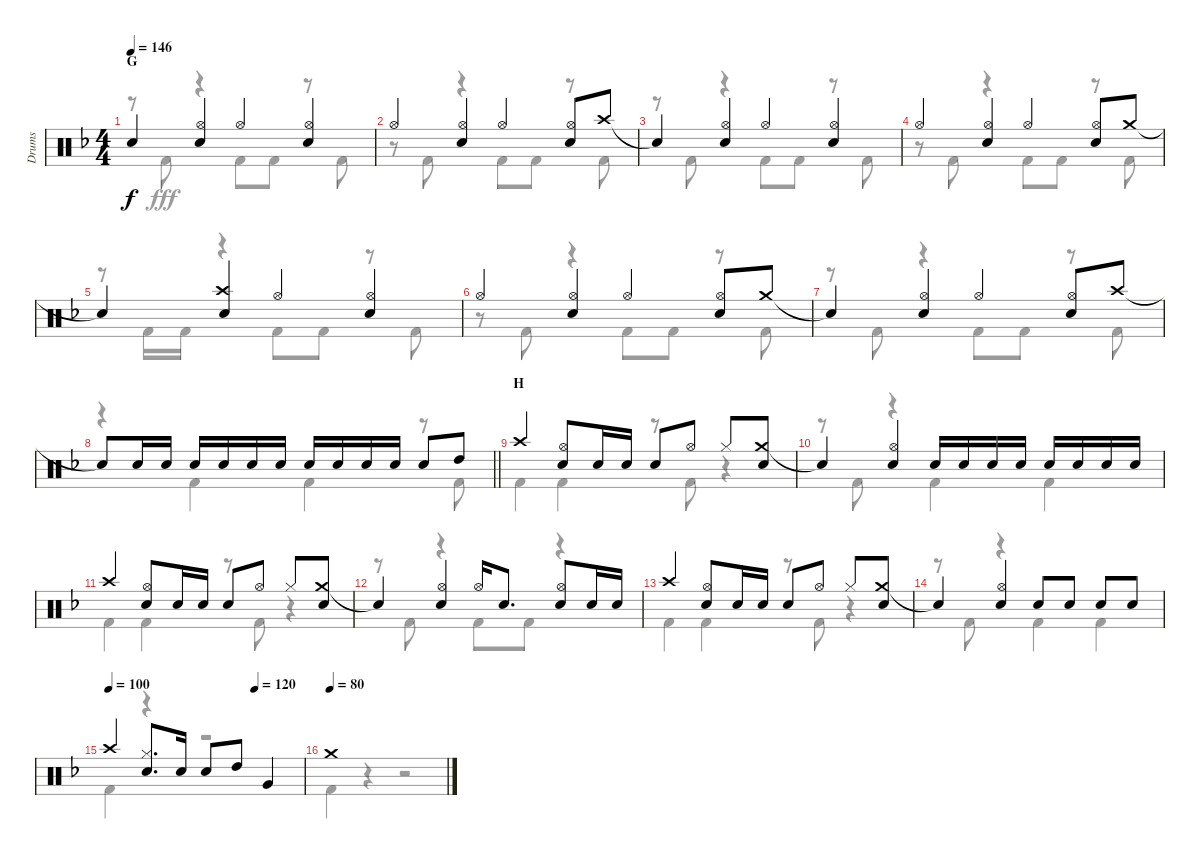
\track ("Drums" "Drums") {instrument percussion}
\staff {score}
\articulation defaults
\voice
\ts (4 4)
\section ("" "G")
\tempo 146
\clef neutral
\ks f "Snare (hit)"{t}.4{dy f}
("Hi-Hat (open)" "Snare (hit) 2").4 "Hi-Hat (open)".4 ("Hi-Hat (open)" "Snare (hit) 2").4 |
"Hi-Hat (open)".4 ("Hi-Hat (open)" "Snare (hit) 2").4 "Hi-Hat (open)".4 ("Hi-Hat (open)" "Snare (hit) 2").8 "Crash high (hit)".8 |
"Snare (hit)"{t}.4 ("Hi-Hat (open)" "Snare (hit) 2").4 "Hi-Hat (open)".4 ("Hi-Hat (open)" "Snare (hit) 2").4 |
"Hi-Hat (open)".4 ("Hi-Hat (open)" "Snare (hit) 2").4 "Hi-Hat (open)".4 ("Hi-Hat (open)" "Snare (hit) 2").8 "Crash medium (hit)".8 |
"Snare (hit)"{t}.4 ("Crash high (hit)" "Snare (hit) 2").4 "Hi-Hat (open)".4 ("Hi-Hat (open)" "Snare (hit) 2").4 |
"Hi-Hat (open)".4 ("Hi-Hat (open)" "Snare (hit) 2").4 "Hi-Hat (open)".4 ("Hi-Hat (open)" "Snare (hit) 2").8 "Crash medium (hit)".8 |
"Snare (hit)"{t}.4 ("Hi-Hat (open)" "Snare (hit) 2").4 "Hi-Hat (open)".4 ("Hi-Hat (open)" "Snare (hit) 2").8 "Crash high (hit)".8 |
\barLineRight lightlight "Snare (hit)"{t}.8 "Snare (hit) 2".16 "Snare (hit) 2".16 "Snare (hit) 2".16 "Snare (hit) 2".16 "Snare (hit) 2".16 "Snare (hit) 2".16 "Snare (hit) 2".16 "Snare (hit) 2".16 "Snare (hit) 2".16 "Snare (hit) 2".16 "Snare (hit) 2".8 "High Tom (hit)".8
|
\section ("" "H")
"Crash high (hit)".4 ("Hi-Hat (open)" "Snare (hit) 2").8 "Snare (hit) 2".16 "Snare (hit) 2".16 "Snare (hit) 2".8 "Hi-Hat (open)".8 "Hi-Hat (closed)".8 ("Crash medium (hit)" "Snare (hit) 2").8 |
"Snare (hit)"{t}.4 ("Hi-Hat (open)" "Snare (hit) 2").4 "Snare (hit) 2".16 "Snare (hit) 2".16 "Snare (hit) 2".16 "Snare (hit) 2".16 "Snare (hit) 2".16 "Snare (hit) 2".16 "Snare (hit) 2".16 "Snare (hit) 2".16 |
"Crash high (hit)".4 ("Hi-Hat (open)" "Snare (hit) 2").8 "Snare (hit) 2".16 "Snare (hit) 2".16 "Snare (hit) 2".8 "Hi-Hat (open)".8 "Hi-Hat (closed)".8 ("Crash medium (hit)" "Snare (hit) 2").8 |
"Snare (hit)"{t}.4 ("Hi-Hat (open)" "Snare (hit) 2").4 "Hi-Hat (open)".16 "Snare (hit) 2".8{d} ("Hi-Hat (open)" "Snare (hit) 2").8 "Snare (hit) 2".16 "Snare (hit) 2".16 |
"Crash high (hit)".4 ("Hi-Hat (open)" "Snare (hit) 2").8 "Snare (hit) 2".16 "Snare (hit) 2".16 "Snare (hit) 2".8 "Hi-Hat (open)".8 "Hi-Hat (closed)".8 ("Crash medium (hit)" "Snare (hit) 2").8 |
"Snare (hit)"{t}.4 ("Hi-Hat (open)" "Snare (hit) 2").4 "Snare (hit) 2".8 "Snare (hit) 2".8 "Snare (hit) 2".8 "Snare (hit) 2".8 |
\tempo 100
\tempo (120 0.75)
"Crash high (hit)".4 ("Hi-Hat (closed)" "Snare (hit) 2").8{d} "Snare (hit) 2".16 "Snare (hit) 2".8 "High Tom (hit)".8 "Very Low Tom (hit)".4 |
\tempo (80)
"Crash medium (hit)".1
\voice
\clef neutral
\ottava regular
\simile none
\ks f
r.8{dy fff} "Kick (hit) 2".8 r.4 "Kick (hit) 2".8 "Kick (hit) 2".8 r.8 "Kick (hit) 2".8 |
r.8 "Kick (hit) 2".8 r.4 "Kick (hit) 2".8 "Kick (hit) 2".8 r.8 "Kick (hit) 2".8 |
r.8 "Kick (hit) 2".8 r.4 "Kick (hit) 2".8 "Kick (hit) 2".8 r.8 "Kick (hit) 2".8 |
r.8 "Kick (hit) 2".8 r.4 "Kick (hit) 2".8 "Kick (hit) 2".8 r.8 "Kick (hit) 2".8 |
r.8 "Kick (hit) 2".16 "Kick (hit) 2".16 r.4 "Kick (hit) 2".8 "Kick (hit) 2".8 r.8 "Kick (hit) 2".8 |
r.8 "Kick (hit) 2".8 r.4 "Kick (hit) 2".8 "Kick (hit) 2".8 r.8 "Kick (hit) 2".8 |
r.8 "Kick (hit) 2".8 r.4 "Kick (hit) 2".8 "Kick (hit) 2".8 r.8 "Kick (hit) 2".8 |
\barLineRight lightlight
r.4 "Kick (hit) 2".4 "Kick (hit) 2".4 r.8 "Kick (hit) 2".8 |
"Kick (hit) 2".4 "Kick (hit) 2".4 r.8 "Kick (hit) 2".8 r.4 |
r.8 "Kick (hit) 2".8 r.4 "Kick (hit) 2".4 "Kick (hit) 2".4 |
"Kick (hit) 2".4 "Kick (hit) 2".4 r.8 "Kick (hit) 2".8 r.4 |
r.8 "Kick (hit) 2".8 r.4 "Kick (hit) 2".8 "Kick (hit) 2".8 r.4 |
"Kick (hit) 2".4 "Kick (hit) 2".4 r.8 "Kick (hit) 2".8 r.4 |
r.8 "Kick (hit) 2".8 r.4 "Kick (hit) 2".4 "Kick (hit) 2".4 |
"Kick (hit) 2".4 r.4 r.2 |
"Kick (hit) 2".4 r.4 r.2
